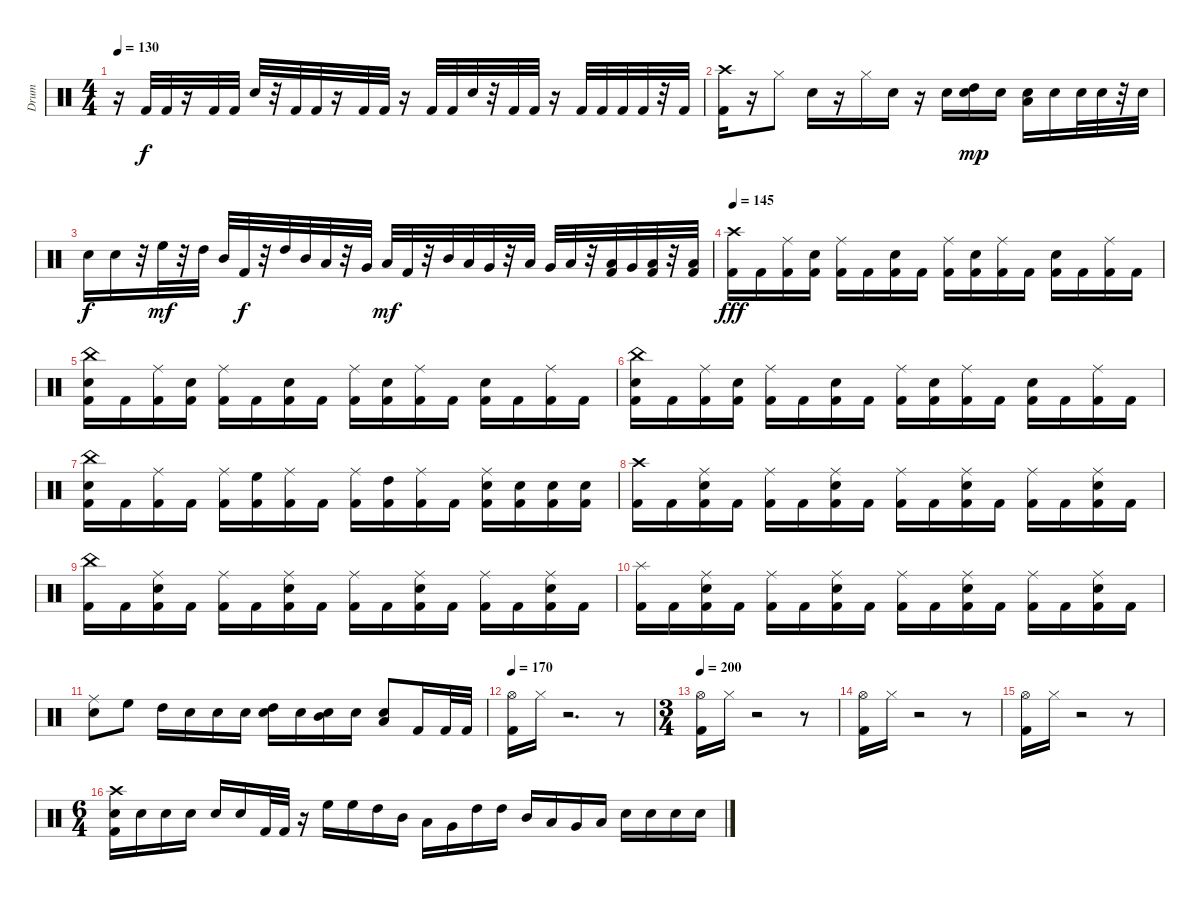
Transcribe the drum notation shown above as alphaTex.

\track ("Drum" "Drum") {instrument percussion}
\staff {score}
\articulation defaults
\ts (4 4)
\tempo 130
\clef neutral
\ks c
r.16{dy f} "Kick (hit) 2".32 "Kick (hit) 2".32 r.16 "Kick (hit) 2".32 "Kick (hit) 2".32 "Electric Snare (hit)".32 r.32 "Kick (hit) 2".32 "Kick (hit) 2".32 r.16 "Kick (hit) 2".32 "Kick (hit) 2".32 r.16 "Kick (hit) 2".32 "Kick (hit) 2".32 "Electric Snare (hit)".32 r.32 "Kick (hit) 2".32 "Kick (hit) 2".32 r.16 "Kick (hit) 2".32 "Kick (hit) 2".32 "Kick (hit) 2".32 "Kick (hit) 2".32 r.32 "Kick (hit) 2".32 |
("Crash high (hit)" "Kick (hit) 2").16 r.16 "Hi-Hat (closed)".8 "Electric Snare (hit)".16 r.16 "Hi-Hat (closed)".16 "Electric Snare (hit)".16 r.16 "Electric Snare (hit)".16 ("High Tom (hit)" "Electric Snare (hit)").16{dy mp} "Electric Snare (hit)".16 ("Low Tom (hit)" "Electric Snare (hit)").16 "Electric Snare (hit)".16 "Electric Snare (hit)".32 "Electric Snare (hit)".32 r.32 "Electric Snare (hit)".32 |
"Electric Snare (hit)".16{dy f} "Electric Snare (hit)".16 r.32 "High Floor Tom (hit)".32{dy mf} r.32 "High Tom (hit)".32 "Mid Tom (hit)".32 "Kick (hit) 2".32{dy f} r.32 "High Tom (hit)".32 "Mid Tom (hit)".32 "Low Tom (hit)".32 r.32 "Very Low Tom (hit)".32 "Low Floor Tom (hit)".32{dy mf} "Kick (hit) 2".32 r.32 "Mid Tom (hit)".32 "Low Tom (hit)".32 "Very Low Tom (hit)".32 r.32 "Low Floor Tom (hit)".32 "Very Low Tom (hit)".32 "Low Floor Tom (hit)".32 r.32 ("Kick (hit) 2" "Low Floor Tom (hit)").32 "Very Low Tom (hit)".32 ("Kick (hit) 2" "Low Floor Tom (hit)").32 r.32 ("Kick (hit) 2" "Low Floor Tom (hit)").32 |
\tempo 145
("Kick (hit) 2" "Crash high (hit)").16{dy fff} "Kick (hit) 2".16 ("Kick (hit) 2" "Ride (middle)").16 ("Kick (hit) 2" "Electric Snare (hit)").16 ("Kick (hit) 2" "Ride (middle)").16 "Kick (hit) 2".16 ("Kick (hit) 2" "Electric Snare (hit)").16 "Kick (hit) 2".16 ("Kick (hit) 2" "Ride (middle)").16 ("Kick (hit) 2" "Electric Snare (hit)").16 ("Kick (hit) 2" "Ride (middle)").16 "Kick (hit) 2".16 ("Kick (hit) 2" "Electric Snare (hit)").16 "Kick (hit) 2".16 ("Kick (hit) 2" "Ride (middle)").16 "Kick (hit) 2".16 |
("Kick (hit) 2" "Electric Snare (hit)" "China (hit)").16 "Kick (hit) 2".16 ("Kick (hit) 2" "Ride (middle)").16 ("Kick (hit) 2" "Electric Snare (hit)").16 ("Kick (hit) 2" "Ride (middle)").16 "Kick (hit) 2".16 ("Kick (hit) 2" "Electric Snare (hit)").16 "Kick (hit) 2".16 ("Kick (hit) 2" "Ride (middle)").16 ("Kick (hit) 2" "Electric Snare (hit)").16 ("Kick (hit) 2" "Ride (middle)").16 "Kick (hit) 2".16 ("Kick (hit) 2" "Electric Snare (hit)").16 "Kick (hit) 2".16 ("Kick (hit) 2" "Ride (middle)").16 "Kick (hit) 2".16 |
("Kick (hit) 2" "Electric Snare (hit)" "China (hit)").16 "Kick (hit) 2".16 ("Kick (hit) 2" "Ride (middle)").16 ("Kick (hit) 2" "Electric Snare (hit)").16 ("Kick (hit) 2" "Ride (middle)").16 "Kick (hit) 2".16 ("Kick (hit) 2" "Electric Snare (hit)").16 "Kick (hit) 2".16 ("Kick (hit) 2" "Ride (middle)").16 ("Kick (hit) 2" "Electric Snare (hit)").16 ("Kick (hit) 2" "Ride (middle)").16 "Kick (hit) 2".16 ("Kick (hit) 2" "Electric Snare (hit)").16 "Kick (hit) 2".16 ("Kick (hit) 2" "Ride (middle)").16 "Kick (hit) 2".16 |
("Electric Snare (hit)" "Kick (hit) 2" "China (hit)").16 "Kick (hit) 2".16 ("Kick (hit) 2" "Ride (middle)").16 "Kick (hit) 2".16 ("Kick (hit) 2" "Ride (middle)").16 ("Kick (hit) 2" "High Floor Tom (hit)").16 ("Kick (hit) 2" "Ride (middle)").16 "Kick (hit) 2".16 ("Kick (hit) 2" "Ride (middle)").16 ("Kick (hit) 2" "High Tom (hit)").16 ("Kick (hit) 2" "Ride (middle)").16 "Kick (hit) 2".16 ("Kick (hit) 2" "Electric Snare (hit)" "Ride (middle)").16 ("Kick (hit) 2" "Electric Snare (hit)").16 ("Kick (hit) 2" "Electric Snare (hit)").16 ("Kick (hit) 2" "Electric Snare (hit)").16 |
("Kick (hit) 2" "Crash high (hit)").16 "Kick (hit) 2".16 ("Electric Snare (hit)" "Kick (hit) 2" "Ride (middle)").16 "Kick (hit) 2".16 ("Kick (hit) 2" "Ride (middle)").16 "Kick (hit) 2".16 ("Electric Snare (hit)" "Kick (hit) 2" "Ride (middle)").16 "Kick (hit) 2".16 ("Kick (hit) 2" "Ride (middle)").16 "Kick (hit) 2".16 ("Electric Snare (hit)" "Kick (hit) 2" "Ride (middle)").16 "Kick (hit) 2".16 ("Kick (hit) 2" "Ride (middle)").16 "Kick (hit) 2".16 ("Electric Snare (hit)" "Kick (hit) 2" "Ride (middle)").16 "Kick (hit) 2".16 |
("Kick (hit) 2" "China (hit)").16 "Kick (hit) 2".16 ("Electric Snare (hit)" "Kick (hit) 2" "Ride (middle)").16 "Kick (hit) 2".16 ("Kick (hit) 2" "Ride (middle)").16 "Kick (hit) 2".16 ("Electric Snare (hit)" "Kick (hit) 2" "Ride (middle)").16 "Kick (hit) 2".16 ("Kick (hit) 2" "Ride (middle)").16 "Kick (hit) 2".16 ("Electric Snare (hit)" "Kick (hit) 2" "Ride (middle)").16 "Kick (hit) 2".16 ("Kick (hit) 2" "Ride (middle)").16 "Kick (hit) 2".16 ("Electric Snare (hit)" "Kick (hit) 2" "Ride (middle)").16 "Kick (hit) 2".16 |
("Kick (hit) 2" "Splash (hit)").16 "Kick (hit) 2".16 ("Electric Snare (hit)" "Kick (hit) 2" "Ride (middle)").16 "Kick (hit) 2".16 ("Kick (hit) 2" "Ride (middle)").16 "Kick (hit) 2".16 ("Electric Snare (hit)" "Kick (hit) 2" "Ride (middle)").16 "Kick (hit) 2".16 ("Kick (hit) 2" "Ride (middle)").16 "Kick (hit) 2".16 ("Electric Snare (hit)" "Kick (hit) 2" "Ride (middle)").16 "Kick (hit) 2".16 ("Kick (hit) 2" "Ride (middle)").16 "Kick (hit) 2".16 ("Kick (hit) 2" "Ride (middle)" "Electric Snare (hit)").16 "Kick (hit) 2".16 |
("Ride (middle)" "Electric Snare (hit)").8 "High Floor Tom (hit)".8 "High Tom (hit)".16 "Electric Snare (hit)".16 "Electric Snare (hit)".16 "Electric Snare (hit)".16 ("High Tom (hit)" "Electric Snare (hit)").16 "Electric Snare (hit)".16 ("Mid Tom (hit)" "Electric Snare (hit)").16 "Electric Snare (hit)".16 ("Low Tom (hit)" "Electric Snare (hit)").8 "Kick (hit) 2".16 "Kick (hit) 2".32 "Kick (hit) 2".32 |
\tempo 170
("Hi-Hat (open)" "Kick (hit) 2").16 "Hi-Hat (closed)".16 r.2{d} r.8 |
\ts (3 4)
\tempo 200
("Hi-Hat (open)" "Kick (hit) 2").16 "Hi-Hat (closed)".16 r.2 r.8 |
("Hi-Hat (open)" "Kick (hit) 2").16 "Hi-Hat (closed)".16 r.2 r.8 |
("Hi-Hat (open)" "Kick (hit) 2").16 "Hi-Hat (closed)".16 r.2 r.8 |
\ts (6 4)
("Crash high (hit)" "Kick (hit) 2" "Electric Snare (hit)").16 "Electric Snare (hit)".16 "Electric Snare (hit)".16 "Electric Snare (hit)".16 "Electric Snare (hit)".16 "Electric Snare (hit)".16 "Kick (hit) 2".32 "Kick (hit) 2".32 r.16 "High Floor Tom (hit)".16 "High Floor Tom (hit)".16 "High Tom (hit)".16 "Mid Tom (hit)".16 "Low Tom (hit)".16 "Very Low Tom (hit)".16 "High Tom (hit)".16 "High Tom (hit)".16 "Mid Tom (hit)".16 "Low Tom (hit)".16 "Very Low Tom (hit)".16 "Low Floor Tom (hit)".16 "Electric Snare (hit)".16 "Electric Snare (hit)".16 "Electric Snare (hit)".16 "Electric Snare (hit)".16
